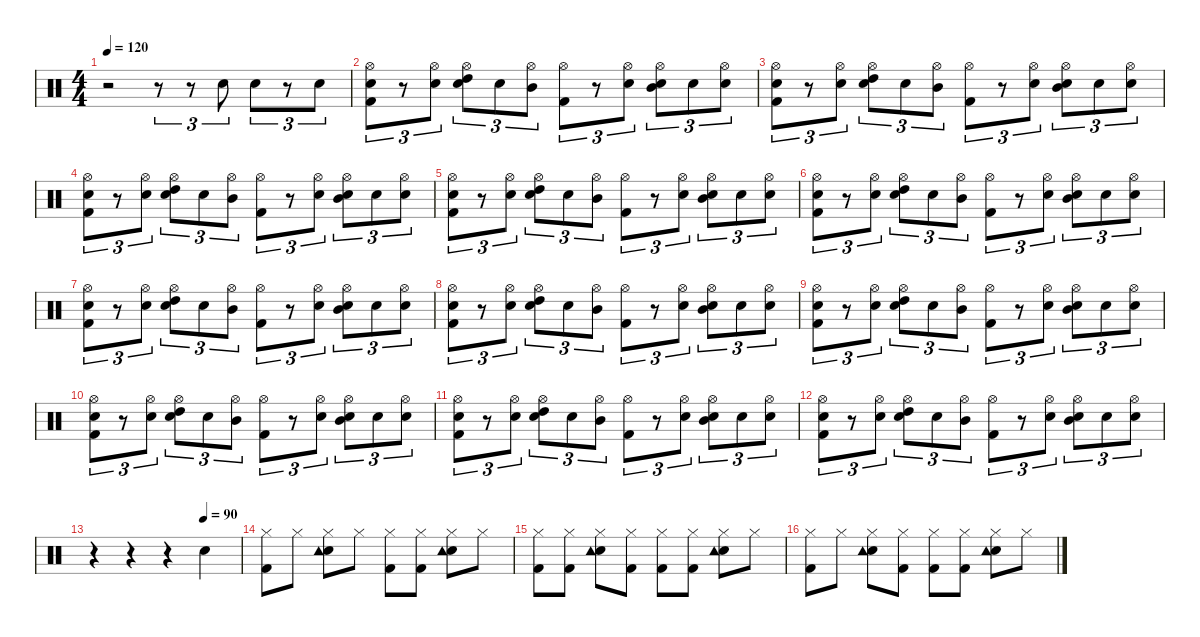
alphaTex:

\defaultSystemsLayout 4
\hideDynamics
\bracketExtendMode nobrackets
\singleTrackTrackNamePolicy hidden
\multiTrackTrackNamePolicy hidden
\firstSystemTrackNameMode fullname
\firstSystemTrackNameOrientation horizontal
\otherSystemsTrackNameOrientation horizontal
\track ("Drums" "drm.") {instrument percussion}
\staff {score}
\articulation defaults
\ts (4 4)
\tempo 120
\clef neutral
\ks c
r.2{dy f beam Down} r.8{tu (3 2) beam Down} r.8{tu (3 2) beam Down} "Snare (hit) 2".8{tu (3 2) beam Down} "Snare (hit) 2".8{tu (3 2) beam Down} r.8{tu (3 2) beam Down} "Snare (hit) 2".8{tu (3 2) beam Down} |
("Hi-Hat (open)" "Snare (hit) 2" "Kick (hit) 2").8{tu (3 2) beam Down} r.8{tu (3 2) beam Down} ("Hi-Hat (open)" "Snare (hit) 2").8{tu (3 2) beam Down} ("Hi-Hat (open)" "High Tom (hit)" "Snare (hit) 2").8{tu (3 2) beam Down} "Snare (hit) 2".8{tu (3 2) dy mp beam Down} ("Hi-Hat (open)" "Mid Tom (hit)").8{tu (3 2) dy f beam Down} ("Hi-Hat (open)" "Kick (hit) 2").8{tu (3 2) beam Down} r.8{tu (3 2) beam Down} ("Hi-Hat (open)" "Snare (hit) 2").8{tu (3 2) beam Down} ("Hi-Hat (open)" "Mid Tom (hit)" "Snare (hit) 2").8{tu (3 2) beam Down} "Snare (hit) 2".8{tu (3 2) dy mp beam Down} ("Hi-Hat (open)" "Snare (hit) 2").8{tu (3 2) dy f beam Down} |
("Hi-Hat (open)" "Snare (hit) 2" "Kick (hit) 2").8{tu (3 2) beam Down} r.8{tu (3 2) beam Down} ("Hi-Hat (open)" "Snare (hit) 2").8{tu (3 2) beam Down} ("Hi-Hat (open)" "High Tom (hit)" "Snare (hit) 2").8{tu (3 2) beam Down} "Snare (hit) 2".8{tu (3 2) dy mp beam Down} ("Hi-Hat (open)" "Mid Tom (hit)").8{tu (3 2) dy f beam Down} ("Hi-Hat (open)" "Kick (hit) 2").8{tu (3 2) beam Down} r.8{tu (3 2) beam Down} ("Hi-Hat (open)" "Snare (hit) 2").8{tu (3 2) beam Down} ("Hi-Hat (open)" "Mid Tom (hit)" "Snare (hit) 2").8{tu (3 2) beam Down} "Snare (hit) 2".8{tu (3 2) dy mp beam Down} ("Hi-Hat (open)" "Snare (hit) 2").8{tu (3 2) dy f beam Down} |
("Hi-Hat (open)" "Snare (hit) 2" "Kick (hit) 2").8{tu (3 2) beam Down} r.8{tu (3 2) beam Down} ("Hi-Hat (open)" "Snare (hit) 2").8{tu (3 2) beam Down} ("Hi-Hat (open)" "High Tom (hit)" "Snare (hit) 2").8{tu (3 2) beam Down} "Snare (hit) 2".8{tu (3 2) dy mp beam Down} ("Hi-Hat (open)" "Mid Tom (hit)").8{tu (3 2) dy f beam Down} ("Hi-Hat (open)" "Kick (hit) 2").8{tu (3 2) beam Down} r.8{tu (3 2) beam Down} ("Hi-Hat (open)" "Snare (hit) 2").8{tu (3 2) beam Down} ("Hi-Hat (open)" "Mid Tom (hit)" "Snare (hit) 2").8{tu (3 2) beam Down} "Snare (hit) 2".8{tu (3 2) dy mp beam Down} ("Hi-Hat (open)" "Snare (hit) 2").8{tu (3 2) dy f beam Down} |
("Hi-Hat (open)" "Snare (hit) 2" "Kick (hit) 2").8{tu (3 2) beam Down} r.8{tu (3 2) beam Down} ("Hi-Hat (open)" "Snare (hit) 2").8{tu (3 2) beam Down} ("Hi-Hat (open)" "High Tom (hit)" "Snare (hit) 2").8{tu (3 2) beam Down} "Snare (hit) 2".8{tu (3 2) dy mp beam Down} ("Hi-Hat (open)" "Mid Tom (hit)").8{tu (3 2) dy f beam Down} ("Hi-Hat (open)" "Kick (hit) 2").8{tu (3 2) beam Down} r.8{tu (3 2) beam Down} ("Hi-Hat (open)" "Snare (hit) 2").8{tu (3 2) beam Down} ("Hi-Hat (open)" "Mid Tom (hit)" "Snare (hit) 2").8{tu (3 2) beam Down} "Snare (hit) 2".8{tu (3 2) dy mp beam Down} ("Hi-Hat (open)" "Snare (hit) 2").8{tu (3 2) dy f beam Down} |
("Hi-Hat (open)" "Snare (hit) 2" "Kick (hit) 2").8{tu (3 2) beam Down} r.8{tu (3 2) beam Down} ("Hi-Hat (open)" "Snare (hit) 2").8{tu (3 2) beam Down} ("Hi-Hat (open)" "High Tom (hit)" "Snare (hit) 2").8{tu (3 2) beam Down} "Snare (hit) 2".8{tu (3 2) dy mp beam Down} ("Hi-Hat (open)" "Mid Tom (hit)").8{tu (3 2) dy f beam Down} ("Hi-Hat (open)" "Kick (hit) 2").8{tu (3 2) beam Down} r.8{tu (3 2) beam Down} ("Hi-Hat (open)" "Snare (hit) 2").8{tu (3 2) beam Down} ("Hi-Hat (open)" "Mid Tom (hit)" "Snare (hit) 2").8{tu (3 2) beam Down} "Snare (hit) 2".8{tu (3 2) dy mp beam Down} ("Hi-Hat (open)" "Snare (hit) 2").8{tu (3 2) dy f beam Down} |
("Hi-Hat (open)" "Snare (hit) 2" "Kick (hit) 2").8{tu (3 2) beam Down} r.8{tu (3 2) beam Down} ("Hi-Hat (open)" "Snare (hit) 2").8{tu (3 2) beam Down} ("Hi-Hat (open)" "High Tom (hit)" "Snare (hit) 2").8{tu (3 2) beam Down} "Snare (hit) 2".8{tu (3 2) dy mp beam Down} ("Hi-Hat (open)" "Mid Tom (hit)").8{tu (3 2) dy f beam Down} ("Hi-Hat (open)" "Kick (hit) 2").8{tu (3 2) beam Down} r.8{tu (3 2) beam Down} ("Hi-Hat (open)" "Snare (hit) 2").8{tu (3 2) beam Down} ("Hi-Hat (open)" "Mid Tom (hit)" "Snare (hit) 2").8{tu (3 2) beam Down} "Snare (hit) 2".8{tu (3 2) dy mp beam Down} ("Hi-Hat (open)" "Snare (hit) 2").8{tu (3 2) dy f beam Down} |
("Hi-Hat (open)" "Snare (hit) 2" "Kick (hit) 2").8{tu (3 2) beam Down} r.8{tu (3 2) beam Down} ("Hi-Hat (open)" "Snare (hit) 2").8{tu (3 2) beam Down} ("Hi-Hat (open)" "High Tom (hit)" "Snare (hit) 2").8{tu (3 2) beam Down} "Snare (hit) 2".8{tu (3 2) dy mp beam Down} ("Hi-Hat (open)" "Mid Tom (hit)").8{tu (3 2) dy f beam Down} ("Hi-Hat (open)" "Kick (hit) 2").8{tu (3 2) beam Down} r.8{tu (3 2) beam Down} ("Hi-Hat (open)" "Snare (hit) 2").8{tu (3 2) beam Down} ("Hi-Hat (open)" "Mid Tom (hit)" "Snare (hit) 2").8{tu (3 2) beam Down} "Snare (hit) 2".8{tu (3 2) dy mp beam Down} ("Hi-Hat (open)" "Snare (hit) 2").8{tu (3 2) dy f beam Down} |
("Hi-Hat (open)" "Snare (hit) 2" "Kick (hit) 2").8{tu (3 2) beam Down} r.8{tu (3 2) beam Down} ("Hi-Hat (open)" "Snare (hit) 2").8{tu (3 2) beam Down} ("Hi-Hat (open)" "High Tom (hit)" "Snare (hit) 2").8{tu (3 2) beam Down} "Snare (hit) 2".8{tu (3 2) dy mp beam Down} ("Hi-Hat (open)" "Mid Tom (hit)").8{tu (3 2) dy f beam Down} ("Hi-Hat (open)" "Kick (hit) 2").8{tu (3 2) beam Down} r.8{tu (3 2) beam Down} ("Hi-Hat (open)" "Snare (hit) 2").8{tu (3 2) beam Down} ("Hi-Hat (open)" "Mid Tom (hit)" "Snare (hit) 2").8{tu (3 2) beam Down} "Snare (hit) 2".8{tu (3 2) dy mp beam Down} ("Hi-Hat (open)" "Snare (hit) 2").8{tu (3 2) dy f beam Down} |
("Hi-Hat (open)" "Snare (hit) 2" "Kick (hit) 2").8{tu (3 2) beam Down} r.8{tu (3 2) beam Down} ("Hi-Hat (open)" "Snare (hit) 2").8{tu (3 2) beam Down} ("Hi-Hat (open)" "High Tom (hit)" "Snare (hit) 2").8{tu (3 2) beam Down} "Snare (hit) 2".8{tu (3 2) dy mp beam Down} ("Hi-Hat (open)" "Mid Tom (hit)").8{tu (3 2) dy f beam Down} ("Hi-Hat (open)" "Kick (hit) 2").8{tu (3 2) beam Down} r.8{tu (3 2) beam Down} ("Hi-Hat (open)" "Snare (hit) 2").8{tu (3 2) beam Down} ("Hi-Hat (open)" "Mid Tom (hit)" "Snare (hit) 2").8{tu (3 2) beam Down} "Snare (hit) 2".8{tu (3 2) dy mp beam Down} ("Hi-Hat (open)" "Snare (hit) 2").8{tu (3 2) dy f beam Down} |
("Hi-Hat (open)" "Snare (hit) 2" "Kick (hit) 2").8{tu (3 2) beam Down} r.8{tu (3 2) beam Down} ("Hi-Hat (open)" "Snare (hit) 2").8{tu (3 2) beam Down} ("Hi-Hat (open)" "High Tom (hit)" "Snare (hit) 2").8{tu (3 2) beam Down} "Snare (hit) 2".8{tu (3 2) dy mp beam Down} ("Hi-Hat (open)" "Mid Tom (hit)").8{tu (3 2) dy f beam Down} ("Hi-Hat (open)" "Kick (hit) 2").8{tu (3 2) beam Down} r.8{tu (3 2) beam Down} ("Hi-Hat (open)" "Snare (hit) 2").8{tu (3 2) beam Down} ("Hi-Hat (open)" "Mid Tom (hit)" "Snare (hit) 2").8{tu (3 2) beam Down} "Snare (hit) 2".8{tu (3 2) dy mp beam Down} ("Hi-Hat (open)" "Snare (hit) 2").8{tu (3 2) dy f beam Down} |
("Hi-Hat (open)" "Snare (hit) 2" "Kick (hit) 2").8{tu (3 2) beam Down} r.8{tu (3 2) beam Down} ("Hi-Hat (open)" "Snare (hit) 2").8{tu (3 2) beam Down} ("Hi-Hat (open)" "High Tom (hit)" "Snare (hit) 2").8{tu (3 2) beam Down} "Snare (hit) 2".8{tu (3 2) dy mp beam Down} ("Hi-Hat (open)" "Mid Tom (hit)").8{tu (3 2) dy f beam Down} ("Hi-Hat (open)" "Kick (hit) 2").8{tu (3 2) beam Down} r.8{tu (3 2) beam Down} ("Hi-Hat (open)" "Snare (hit) 2").8{tu (3 2) beam Down} ("Hi-Hat (open)" "Mid Tom (hit)" "Snare (hit) 2").8{tu (3 2) beam Down} "Snare (hit) 2".8{tu (3 2) dy mp beam Down} ("Hi-Hat (open)" "Snare (hit) 2").8{tu (3 2) dy f beam Down} |
\tempo (90 0.75)
r.4{beam Down} r.4{beam Down} r.4{beam Down} "Snare (hit) 2".4{dy mf beam Down} |
("Hi-Hat (closed)" "Kick (hit) 2").8{dy f beam Down} "Hi-Hat (closed)".8{beam Down} ("Hi-Hat (closed)" "Snare (hit) 2" "Tambourine (hit)").8{beam Down} "Hi-Hat (closed)".8{beam Down} ("Hi-Hat (closed)" "Kick (hit) 2").8{beam Down} ("Hi-Hat (closed)" "Kick (hit) 2").8{beam Down} ("Hi-Hat (closed)" "Snare (hit) 2" "Tambourine (hit)").8{beam Down} "Hi-Hat (closed)".8{beam Down} |
("Hi-Hat (closed)" "Kick (hit) 2").8{beam Down} ("Hi-Hat (closed)" "Kick (hit) 2").8{beam Down} ("Hi-Hat (closed)" "Snare (hit) 2" "Tambourine (hit)").8{beam Down} ("Hi-Hat (closed)" "Kick (hit) 2").8{beam Down} ("Hi-Hat (closed)" "Kick (hit) 2").8{beam Down} ("Hi-Hat (closed)" "Kick (hit) 2").8{beam Down} ("Hi-Hat (closed)" "Snare (hit) 2" "Tambourine (hit)").8{beam Down} "Hi-Hat (closed)".8{beam Down} |
("Hi-Hat (closed)" "Kick (hit) 2").8{beam Down} "Hi-Hat (closed)".8{beam Down} ("Hi-Hat (closed)" "Snare (hit) 2" "Tambourine (hit)").8{beam Down} ("Hi-Hat (closed)" "Kick (hit) 2").8{beam Down} ("Hi-Hat (closed)" "Kick (hit) 2").8{beam Down} ("Hi-Hat (closed)" "Kick (hit) 2").8{beam Down} ("Hi-Hat (closed)" "Snare (hit) 2" "Tambourine (hit)").8{beam Down} "Hi-Hat (closed)".8{beam Down}
